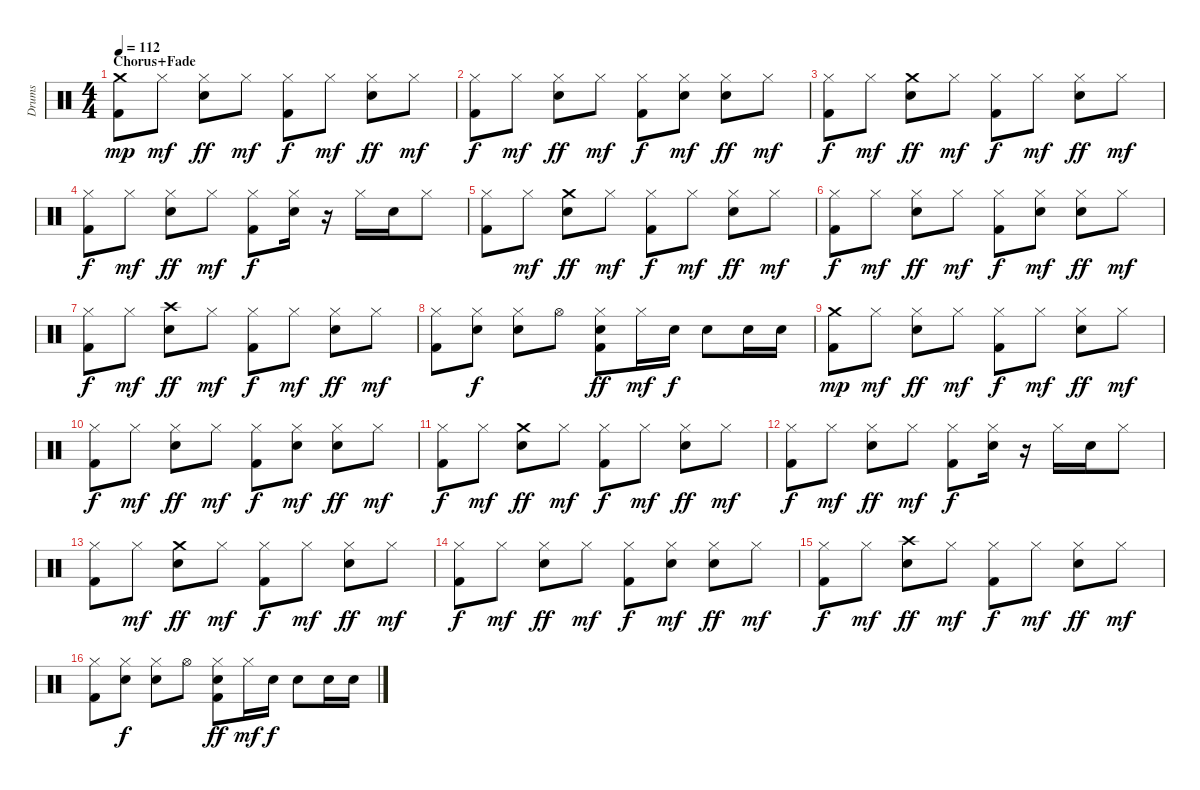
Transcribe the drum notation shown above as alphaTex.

\track ("Drums" "Drums") {instrument percussion}
\staff {score}
\articulation defaults
\ts (4 4)
\section ("" "Chorus+Fade")
\tempo 112
\clef neutral
\ks c
("Crash medium (hit)" "Kick (hit) 2").8{dy mp} "Hi-Hat (closed)".8{dy mf} ("Hi-Hat (closed)" "Snare (hit) 2").8{dy ff} "Hi-Hat (closed)".8{dy mf} ("Hi-Hat (closed)" "Kick (hit) 2").8{dy f} "Hi-Hat (closed)".8{dy mf} ("Hi-Hat (closed)" "Snare (hit) 2").8{dy ff} "Hi-Hat (closed)".8{dy mf} |
("Hi-Hat (closed)" "Kick (hit) 2").8{dy f} "Hi-Hat (closed)".8{dy mf} ("Hi-Hat (closed)" "Snare (hit) 2").8{dy ff} "Hi-Hat (closed)".8{dy mf} ("Hi-Hat (closed)" "Kick (hit) 2").8{dy f} ("Hi-Hat (closed)" "Snare (hit) 2").8{dy mf} ("Hi-Hat (closed)" "Snare (hit) 2").8{dy ff} "Hi-Hat (closed)".8{dy mf} |
("Hi-Hat (closed)" "Kick (hit) 2").8{dy f} "Hi-Hat (closed)".8{dy mf} ("Crash medium (hit)" "Snare (hit) 2").8{dy ff} "Hi-Hat (closed)".8{dy mf} ("Hi-Hat (closed)" "Kick (hit) 2").8{dy f} "Hi-Hat (closed)".8{dy mf} ("Hi-Hat (closed)" "Snare (hit) 2").8{dy ff} "Hi-Hat (closed)".8{dy mf} |
("Hi-Hat (closed)" "Kick (hit) 2").8{dy f} "Hi-Hat (closed)".8{dy mf} ("Hi-Hat (closed)" "Snare (hit) 2").8{dy ff} "Hi-Hat (closed)".8{dy mf} ("Hi-Hat (closed)" "Kick (hit) 2").8{dy f} ("Hi-Hat (closed)" "Snare (hit) 2").16 r.16 "Hi-Hat (closed)".16 "Snare (hit) 2".16 "Hi-Hat (closed)".8 |
("Hi-Hat (closed)" "Kick (hit) 2").8 "Hi-Hat (closed)".8{dy mf} ("Crash medium (hit)" "Snare (hit) 2").8{dy ff} "Hi-Hat (closed)".8{dy mf} ("Hi-Hat (closed)" "Kick (hit) 2").8{dy f} "Hi-Hat (closed)".8{dy mf} ("Hi-Hat (closed)" "Snare (hit) 2").8{dy ff} "Hi-Hat (closed)".8{dy mf} |
("Hi-Hat (closed)" "Kick (hit) 2").8{dy f} "Hi-Hat (closed)".8{dy mf} ("Hi-Hat (closed)" "Snare (hit) 2").8{dy ff} "Hi-Hat (closed)".8{dy mf} ("Hi-Hat (closed)" "Kick (hit) 2").8{dy f} ("Hi-Hat (closed)" "Snare (hit) 2").8{dy mf} ("Hi-Hat (closed)" "Snare (hit) 2").8{dy ff} "Hi-Hat (closed)".8{dy mf} |
("Hi-Hat (closed)" "Kick (hit) 2").8{dy f} "Hi-Hat (closed)".8{dy mf} ("Crash high (hit)" "Snare (hit) 2").8{dy ff} "Hi-Hat (closed)".8{dy mf} ("Hi-Hat (closed)" "Kick (hit) 2").8{dy f} "Hi-Hat (closed)".8{dy mf} ("Hi-Hat (closed)" "Snare (hit) 2").8{dy ff} "Hi-Hat (closed)".8{dy mf} |
("Hi-Hat (closed)" "Kick (hit) 2").8 ("Hi-Hat (closed)" "Snare (hit) 2").8{dy f} ("Hi-Hat (closed)" "Snare (hit) 2").8 "Hi-Hat (open)".8 ("Hi-Hat (closed)" "Snare (hit) 2" "Kick (hit) 2").8{dy ff} "Hi-Hat (closed)".16{dy mf} "Snare (hit) 2".16{dy f} "Snare (hit) 2".8 "Snare (hit) 2".16 "Snare (hit) 2".16 |
("Crash medium (hit)" "Kick (hit) 2").8{dy mp} "Hi-Hat (closed)".8{dy mf} ("Hi-Hat (closed)" "Snare (hit) 2").8{dy ff} "Hi-Hat (closed)".8{dy mf} ("Hi-Hat (closed)" "Kick (hit) 2").8{dy f} "Hi-Hat (closed)".8{dy mf} ("Hi-Hat (closed)" "Snare (hit) 2").8{dy ff} "Hi-Hat (closed)".8{dy mf} |
("Hi-Hat (closed)" "Kick (hit) 2").8{dy f} "Hi-Hat (closed)".8{dy mf} ("Hi-Hat (closed)" "Snare (hit) 2").8{dy ff} "Hi-Hat (closed)".8{dy mf} ("Hi-Hat (closed)" "Kick (hit) 2").8{dy f} ("Hi-Hat (closed)" "Snare (hit) 2").8{dy mf} ("Hi-Hat (closed)" "Snare (hit) 2").8{dy ff} "Hi-Hat (closed)".8{dy mf} |
("Hi-Hat (closed)" "Kick (hit) 2").8{dy f} "Hi-Hat (closed)".8{dy mf} ("Crash medium (hit)" "Snare (hit) 2").8{dy ff} "Hi-Hat (closed)".8{dy mf} ("Hi-Hat (closed)" "Kick (hit) 2").8{dy f} "Hi-Hat (closed)".8{dy mf} ("Hi-Hat (closed)" "Snare (hit) 2").8{dy ff} "Hi-Hat (closed)".8{dy mf} |
("Hi-Hat (closed)" "Kick (hit) 2").8{dy f} "Hi-Hat (closed)".8{dy mf} ("Hi-Hat (closed)" "Snare (hit) 2").8{dy ff} "Hi-Hat (closed)".8{dy mf} ("Hi-Hat (closed)" "Kick (hit) 2").8{dy f} ("Hi-Hat (closed)" "Snare (hit) 2").16 r.16 "Hi-Hat (closed)".16 "Snare (hit) 2".16 "Hi-Hat (closed)".8 |
("Hi-Hat (closed)" "Kick (hit) 2").8 "Hi-Hat (closed)".8{dy mf} ("Crash medium (hit)" "Snare (hit) 2").8{dy ff} "Hi-Hat (closed)".8{dy mf} ("Hi-Hat (closed)" "Kick (hit) 2").8{dy f} "Hi-Hat (closed)".8{dy mf} ("Hi-Hat (closed)" "Snare (hit) 2").8{dy ff} "Hi-Hat (closed)".8{dy mf} |
("Hi-Hat (closed)" "Kick (hit) 2").8{dy f} "Hi-Hat (closed)".8{dy mf} ("Hi-Hat (closed)" "Snare (hit) 2").8{dy ff} "Hi-Hat (closed)".8{dy mf} ("Hi-Hat (closed)" "Kick (hit) 2").8{dy f} ("Hi-Hat (closed)" "Snare (hit) 2").8{dy mf} ("Hi-Hat (closed)" "Snare (hit) 2").8{dy ff} "Hi-Hat (closed)".8{dy mf} |
("Hi-Hat (closed)" "Kick (hit) 2").8{dy f} "Hi-Hat (closed)".8{dy mf} ("Crash high (hit)" "Snare (hit) 2").8{dy ff} "Hi-Hat (closed)".8{dy mf} ("Hi-Hat (closed)" "Kick (hit) 2").8{dy f} "Hi-Hat (closed)".8{dy mf} ("Hi-Hat (closed)" "Snare (hit) 2").8{dy ff} "Hi-Hat (closed)".8{dy mf} |
("Hi-Hat (closed)" "Kick (hit) 2").8 ("Hi-Hat (closed)" "Snare (hit) 2").8{dy f} ("Hi-Hat (closed)" "Snare (hit) 2").8 "Hi-Hat (open)".8 ("Hi-Hat (closed)" "Snare (hit) 2" "Kick (hit) 2").8{dy ff} "Hi-Hat (closed)".16{dy mf} "Snare (hit) 2".16{dy f} "Snare (hit) 2".8 "Snare (hit) 2".16 "Snare (hit) 2".16
